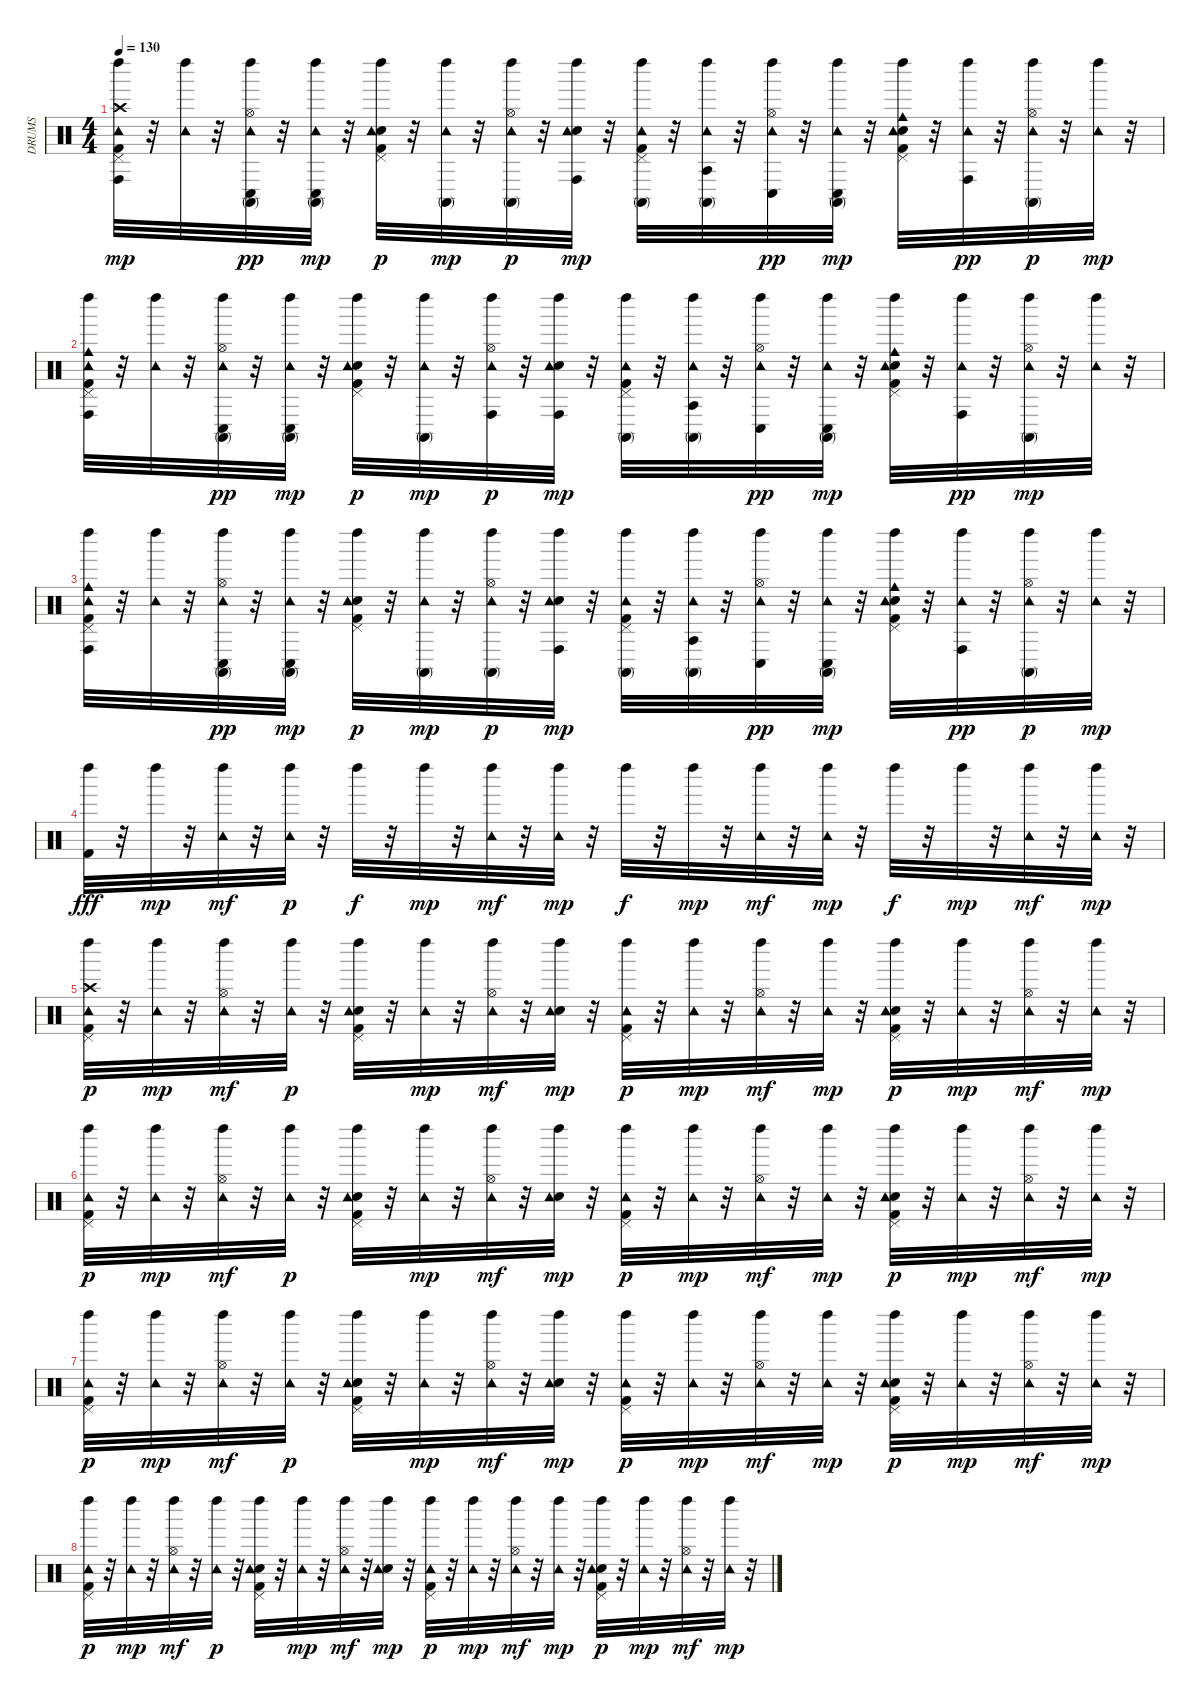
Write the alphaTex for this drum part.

\track ("DRUMS" "DRUMS") {instrument percussion}
\staff {score}
\articulation defaults
\ts (4 4)
\tempo 130
\clef neutral
\ks c
("Kick (hit) 2" "Pedal Hi-Hat (hit)" "Left Maraca (hit)" "Crash high (hit)" "Tambourine (hit)" "Conga high (hit)").32{dy mp} r.32 ("Left Maraca (hit)" "Tambourine (hit)").32 r.32 ("Hi-Hat (open)" "Left Maraca (hit)" "Tambourine (hit)" "Conga high (mute)" "Conga low (hit)").32{dy pp} r.32 ("Left Maraca (hit)" "Tambourine (hit)" "Conga high (mute)" "Conga low (hit)").32{dy mp} r.32 ("Kick (hit) 2" "Electric Snare (hit)" "Pedal Hi-Hat (hit)" "Left Maraca (hit)" "Tambourine (hit)").32{dy p} r.32 ("Left Maraca (hit)" "Tambourine (hit)" "Conga high (mute)").32{dy mp} r.32 ("Hi-Hat (open)" "Left Maraca (hit)" "Tambourine (hit)" "Conga high (mute)").32{dy p} r.32 ("Electric Snare (hit)" "Left Maraca (hit)" "Tambourine (hit)" "Conga high (hit)").32{dy mp} r.32 ("Kick (hit) 2" "Pedal Hi-Hat (hit)" "Left Maraca (hit)" "Tambourine (hit)" "Conga high (mute)").32 r.32 ("Left Maraca (hit)" "Tambourine (hit)" "Conga high (mute)" "Agogo tow (hit)").32 r.32 ("Hi-Hat (open)" "Left Maraca (hit)" "Tambourine (hit)" "Conga low (hit)").32{dy pp} r.32 ("Left Maraca (hit)" "Tambourine (hit)" "Conga high (mute)" "Conga low (hit)").32{dy mp} r.32 ("Kick (hit) 2" "Electric Snare (hit)" "Pedal Hi-Hat (hit)" "Left Maraca (hit)" "Tambourine (hit)" "Cowbell medium (hit)").32 r.32 ("Left Maraca (hit)" "Tambourine (hit)" "Conga high (hit)").32{dy pp} r.32 ("Hi-Hat (open)" "Left Maraca (hit)" "Tambourine (hit)" "Conga high (mute)").32{dy p} r.32 ("Left Maraca (hit)" "Tambourine (hit)").32{dy mp} r.32 |
("Kick (hit) 2" "Pedal Hi-Hat (hit)" "Left Maraca (hit)" "Tambourine (hit)" "Conga high (hit)" "Cowbell medium (hit)").32 r.32 ("Left Maraca (hit)" "Tambourine (hit)").32 r.32 ("Hi-Hat (open)" "Left Maraca (hit)" "Tambourine (hit)" "Conga high (mute)" "Conga low (hit)").32{dy pp} r.32 ("Left Maraca (hit)" "Tambourine (hit)" "Conga high (mute)" "Conga low (hit)").32{dy mp} r.32 ("Kick (hit) 2" "Electric Snare (hit)" "Pedal Hi-Hat (hit)" "Left Maraca (hit)" "Tambourine (hit)").32{dy p} r.32 ("Left Maraca (hit)" "Tambourine (hit)" "Conga high (mute)").32{dy mp} r.32 ("Hi-Hat (open)" "Left Maraca (hit)" "Tambourine (hit)" "Conga high (hit)").32{dy p} r.32 ("Electric Snare (hit)" "Left Maraca (hit)" "Tambourine (hit)" "Conga high (hit)").32{dy mp} r.32 ("Kick (hit) 2" "Pedal Hi-Hat (hit)" "Left Maraca (hit)" "Tambourine (hit)" "Conga high (mute)").32 r.32 ("Left Maraca (hit)" "Tambourine (hit)" "Conga high (mute)" "Agogo tow (hit)").32 r.32 ("Hi-Hat (open)" "Left Maraca (hit)" "Tambourine (hit)" "Conga low (hit)").32{dy pp} r.32 ("Left Maraca (hit)" "Tambourine (hit)" "Conga high (mute)" "Conga low (hit)").32{dy mp} r.32 ("Kick (hit) 2" "Electric Snare (hit)" "Pedal Hi-Hat (hit)" "Left Maraca (hit)" "Tambourine (hit)" "Cowbell medium (hit)").32 r.32 ("Left Maraca (hit)" "Tambourine (hit)" "Conga high (hit)").32{dy pp} r.32 ("Hi-Hat (open)" "Left Maraca (hit)" "Tambourine (hit)" "Conga high (mute)").32{dy mp} r.32 ("Left Maraca (hit)" "Tambourine (hit)").32 r.32 |
("Kick (hit) 2" "Pedal Hi-Hat (hit)" "Left Maraca (hit)" "Tambourine (hit)" "Conga high (hit)" "Cowbell medium (hit)").32 r.32 ("Left Maraca (hit)" "Tambourine (hit)").32 r.32 ("Hi-Hat (open)" "Left Maraca (hit)" "Tambourine (hit)" "Conga high (mute)" "Conga low (hit)").32{dy pp} r.32 ("Left Maraca (hit)" "Tambourine (hit)" "Conga high (mute)" "Conga low (hit)").32{dy mp} r.32 ("Kick (hit) 2" "Electric Snare (hit)" "Pedal Hi-Hat (hit)" "Left Maraca (hit)" "Tambourine (hit)").32{dy p} r.32 ("Left Maraca (hit)" "Tambourine (hit)" "Conga high (mute)").32{dy mp} r.32 ("Hi-Hat (open)" "Left Maraca (hit)" "Tambourine (hit)" "Conga high (mute)").32{dy p} r.32 ("Electric Snare (hit)" "Left Maraca (hit)" "Tambourine (hit)" "Conga high (hit)").32{dy mp} r.32 ("Kick (hit) 2" "Pedal Hi-Hat (hit)" "Left Maraca (hit)" "Tambourine (hit)" "Conga high (mute)").32 r.32 ("Left Maraca (hit)" "Tambourine (hit)" "Conga high (mute)" "Agogo tow (hit)").32 r.32 ("Hi-Hat (open)" "Left Maraca (hit)" "Tambourine (hit)" "Conga low (hit)").32{dy pp} r.32 ("Left Maraca (hit)" "Tambourine (hit)" "Conga high (mute)" "Conga low (hit)").32{dy mp} r.32 ("Kick (hit) 2" "Electric Snare (hit)" "Pedal Hi-Hat (hit)" "Left Maraca (hit)" "Tambourine (hit)" "Cowbell medium (hit)").32 r.32 ("Left Maraca (hit)" "Tambourine (hit)" "Conga high (hit)").32{dy pp} r.32 ("Hi-Hat (open)" "Left Maraca (hit)" "Tambourine (hit)" "Conga high (mute)").32{dy p} r.32 ("Left Maraca (hit)" "Tambourine (hit)").32{dy mp} r.32 |
("Kick (hit) 2" "Left Maraca (hit)").32{dy fff} r.32 "Left Maraca (hit)".32{dy mp} r.32 ("Left Maraca (hit)" "Tambourine (hit)").32{dy mf} r.32 ("Left Maraca (hit)" "Tambourine (hit)").32{dy p} r.32 "Left Maraca (hit)".32{dy f} r.32 "Left Maraca (hit)".32{dy mp} r.32 ("Left Maraca (hit)" "Tambourine (hit)").32{dy mf} r.32 ("Left Maraca (hit)" "Tambourine (hit)").32{dy mp} r.32 "Left Maraca (hit)".32{dy f} r.32 "Left Maraca (hit)".32{dy mp} r.32 ("Left Maraca (hit)" "Tambourine (hit)").32{dy mf} r.32 ("Left Maraca (hit)" "Tambourine (hit)").32{dy mp} r.32 "Left Maraca (hit)".32{dy f} r.32 "Left Maraca (hit)".32{dy mp} r.32 ("Left Maraca (hit)" "Tambourine (hit)").32{dy mf} r.32 ("Left Maraca (hit)" "Tambourine (hit)").32{dy mp} r.32 |
("Kick (hit) 2" "Pedal Hi-Hat (hit)" "Left Maraca (hit)" "Crash high (hit)" "Tambourine (hit)").32{dy p} r.32 ("Left Maraca (hit)" "Tambourine (hit)").32{dy mp} r.32 ("Hi-Hat (open)" "Left Maraca (hit)" "Tambourine (hit)").32{dy mf} r.32 ("Left Maraca (hit)" "Tambourine (hit)").32{dy p} r.32 ("Kick (hit) 2" "Electric Snare (hit)" "Pedal Hi-Hat (hit)" "Left Maraca (hit)" "Tambourine (hit)").32 r.32 ("Left Maraca (hit)" "Tambourine (hit)").32{dy mp} r.32 ("Hi-Hat (open)" "Left Maraca (hit)" "Tambourine (hit)").32{dy mf} r.32 ("Electric Snare (hit)" "Left Maraca (hit)" "Tambourine (hit)").32{dy mp} r.32 ("Kick (hit) 2" "Pedal Hi-Hat (hit)" "Left Maraca (hit)" "Tambourine (hit)").32{dy p} r.32 ("Left Maraca (hit)" "Tambourine (hit)").32{dy mp} r.32 ("Hi-Hat (open)" "Left Maraca (hit)" "Tambourine (hit)").32{dy mf} r.32 ("Left Maraca (hit)" "Tambourine (hit)").32{dy mp} r.32 ("Kick (hit) 2" "Electric Snare (hit)" "Pedal Hi-Hat (hit)" "Left Maraca (hit)" "Tambourine (hit)").32{dy p} r.32 ("Left Maraca (hit)" "Tambourine (hit)").32{dy mp} r.32 ("Hi-Hat (open)" "Left Maraca (hit)" "Tambourine (hit)").32{dy mf} r.32 ("Left Maraca (hit)" "Tambourine (hit)").32{dy mp} r.32 |
("Kick (hit) 2" "Pedal Hi-Hat (hit)" "Left Maraca (hit)" "Tambourine (hit)").32{dy p} r.32 ("Left Maraca (hit)" "Tambourine (hit)").32{dy mp} r.32 ("Hi-Hat (open)" "Left Maraca (hit)" "Tambourine (hit)").32{dy mf} r.32 ("Left Maraca (hit)" "Tambourine (hit)").32{dy p} r.32 ("Kick (hit) 2" "Electric Snare (hit)" "Pedal Hi-Hat (hit)" "Left Maraca (hit)" "Tambourine (hit)").32 r.32 ("Left Maraca (hit)" "Tambourine (hit)").32{dy mp} r.32 ("Hi-Hat (open)" "Left Maraca (hit)" "Tambourine (hit)").32{dy mf} r.32 ("Electric Snare (hit)" "Left Maraca (hit)" "Tambourine (hit)").32{dy mp} r.32 ("Kick (hit) 2" "Pedal Hi-Hat (hit)" "Left Maraca (hit)" "Tambourine (hit)").32{dy p} r.32 ("Left Maraca (hit)" "Tambourine (hit)").32{dy mp} r.32 ("Hi-Hat (open)" "Left Maraca (hit)" "Tambourine (hit)").32{dy mf} r.32 ("Left Maraca (hit)" "Tambourine (hit)").32{dy mp} r.32 ("Kick (hit) 2" "Electric Snare (hit)" "Pedal Hi-Hat (hit)" "Left Maraca (hit)" "Tambourine (hit)").32{dy p} r.32 ("Left Maraca (hit)" "Tambourine (hit)").32{dy mp} r.32 ("Hi-Hat (open)" "Left Maraca (hit)" "Tambourine (hit)").32{dy mf} r.32 ("Left Maraca (hit)" "Tambourine (hit)").32{dy mp} r.32 |
("Kick (hit) 2" "Pedal Hi-Hat (hit)" "Left Maraca (hit)" "Tambourine (hit)").32{dy p} r.32 ("Left Maraca (hit)" "Tambourine (hit)").32{dy mp} r.32 ("Hi-Hat (open)" "Left Maraca (hit)" "Tambourine (hit)").32{dy mf} r.32 ("Left Maraca (hit)" "Tambourine (hit)").32{dy p} r.32 ("Kick (hit) 2" "Electric Snare (hit)" "Pedal Hi-Hat (hit)" "Left Maraca (hit)" "Tambourine (hit)").32 r.32 ("Left Maraca (hit)" "Tambourine (hit)").32{dy mp} r.32 ("Hi-Hat (open)" "Left Maraca (hit)" "Tambourine (hit)").32{dy mf} r.32 ("Electric Snare (hit)" "Left Maraca (hit)" "Tambourine (hit)").32{dy mp} r.32 ("Kick (hit) 2" "Pedal Hi-Hat (hit)" "Left Maraca (hit)" "Tambourine (hit)").32{dy p} r.32 ("Left Maraca (hit)" "Tambourine (hit)").32{dy mp} r.32 ("Hi-Hat (open)" "Left Maraca (hit)" "Tambourine (hit)").32{dy mf} r.32 ("Left Maraca (hit)" "Tambourine (hit)").32{dy mp} r.32 ("Kick (hit) 2" "Electric Snare (hit)" "Pedal Hi-Hat (hit)" "Left Maraca (hit)" "Tambourine (hit)").32{dy p} r.32 ("Left Maraca (hit)" "Tambourine (hit)").32{dy mp} r.32 ("Hi-Hat (open)" "Left Maraca (hit)" "Tambourine (hit)").32{dy mf} r.32 ("Left Maraca (hit)" "Tambourine (hit)").32{dy mp} r.32 |
("Kick (hit) 2" "Pedal Hi-Hat (hit)" "Left Maraca (hit)" "Tambourine (hit)").32{dy p} r.32 ("Left Maraca (hit)" "Tambourine (hit)").32{dy mp} r.32 ("Hi-Hat (open)" "Left Maraca (hit)" "Tambourine (hit)").32{dy mf} r.32 ("Left Maraca (hit)" "Tambourine (hit)").32{dy p} r.32 ("Kick (hit) 2" "Electric Snare (hit)" "Pedal Hi-Hat (hit)" "Left Maraca (hit)" "Tambourine (hit)").32 r.32 ("Left Maraca (hit)" "Tambourine (hit)").32{dy mp} r.32 ("Hi-Hat (open)" "Left Maraca (hit)" "Tambourine (hit)").32{dy mf} r.32 ("Electric Snare (hit)" "Left Maraca (hit)" "Tambourine (hit)").32{dy mp} r.32 ("Kick (hit) 2" "Pedal Hi-Hat (hit)" "Left Maraca (hit)" "Tambourine (hit)").32{dy p} r.32 ("Left Maraca (hit)" "Tambourine (hit)").32{dy mp} r.32 ("Hi-Hat (open)" "Left Maraca (hit)" "Tambourine (hit)").32{dy mf} r.32 ("Left Maraca (hit)" "Tambourine (hit)").32{dy mp} r.32 ("Kick (hit) 2" "Electric Snare (hit)" "Pedal Hi-Hat (hit)" "Left Maraca (hit)" "Tambourine (hit)").32{dy p} r.32 ("Left Maraca (hit)" "Tambourine (hit)").32{dy mp} r.32 ("Hi-Hat (open)" "Left Maraca (hit)" "Tambourine (hit)").32{dy mf} r.32 ("Left Maraca (hit)" "Tambourine (hit)").32{dy mp} r.32
